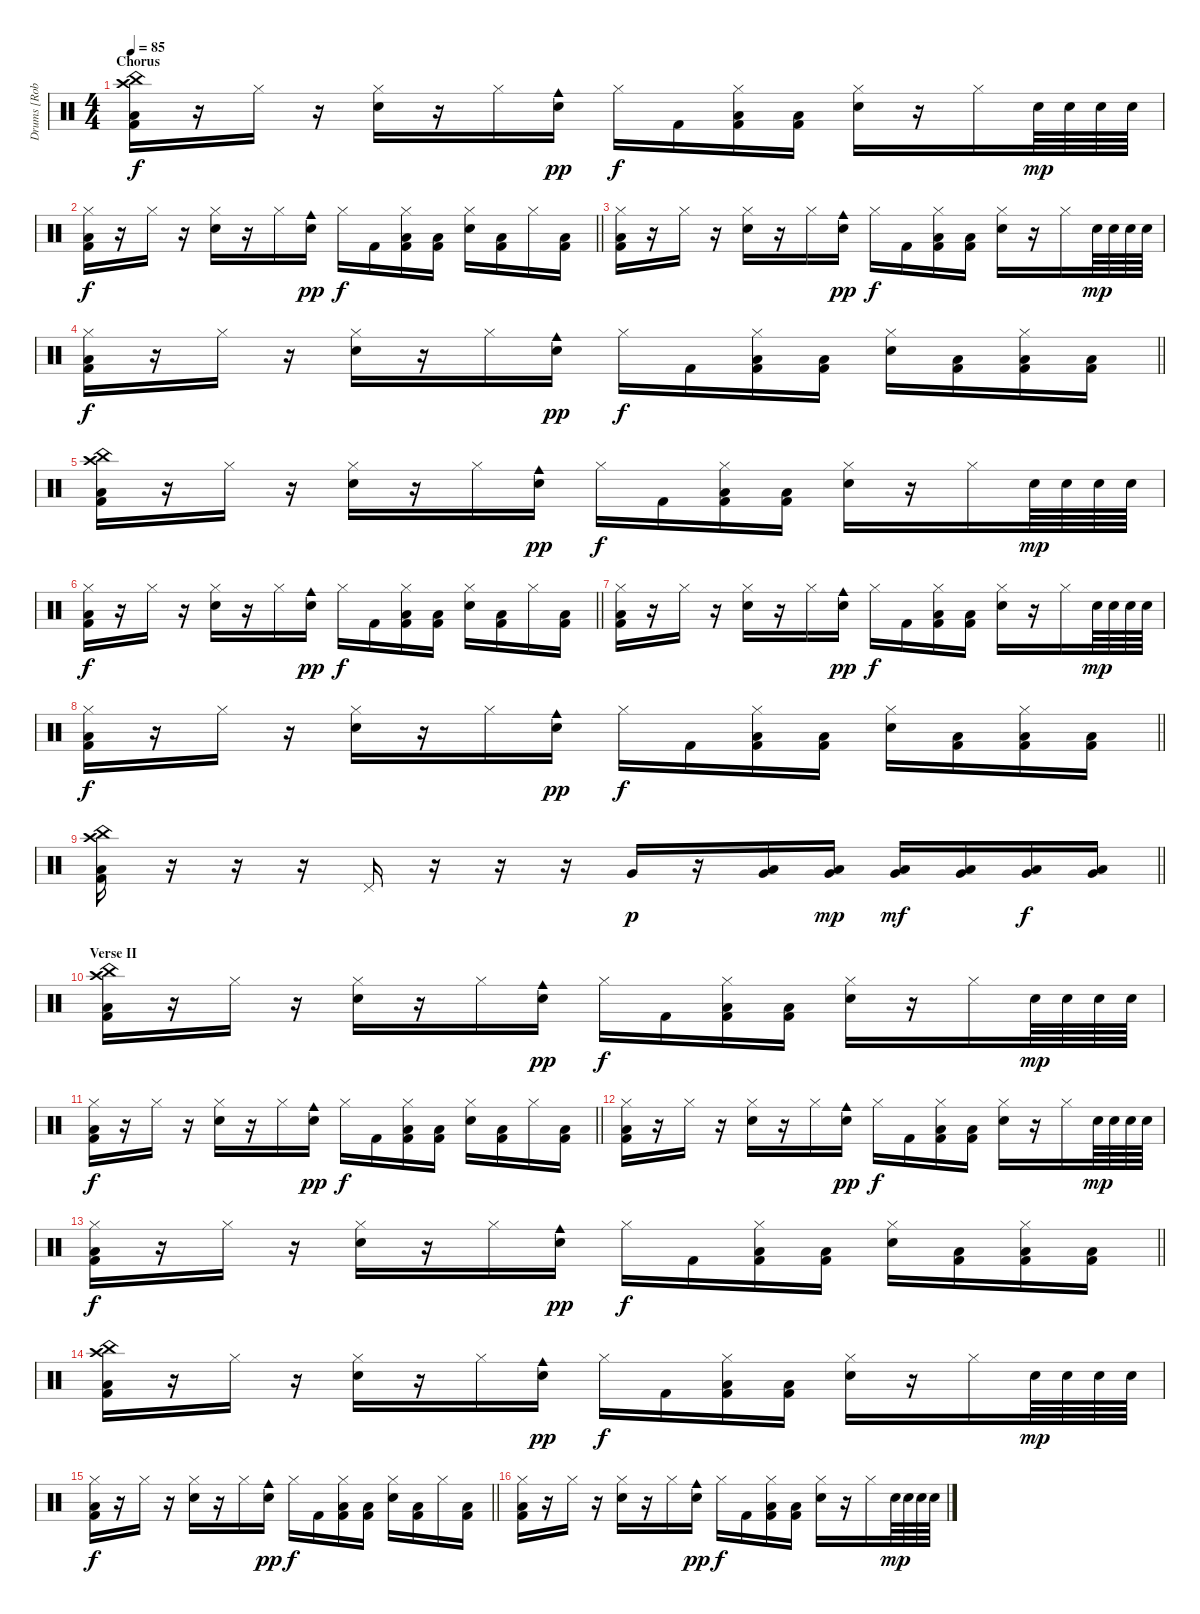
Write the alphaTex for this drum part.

\track ("Drums [Rob Bourdon]" "Drums [Rob") {instrument percussion}
\staff {score}
\articulation defaults
\ts (4 4)
\section ("" "Chorus")
\tempo 85
\clef neutral
\ks c
("China (hit)" "Crash high (hit)" "Low Floor Tom (hit)" "Kick (hit) 2").16{dy f} r.16 "Hi-Hat (closed)".16 r.16 ("Hi-Hat (closed)" "Snare (hit) 2").16 r.16 "Hi-Hat (closed)".16 ("Snare (hit) 2" "Cowbell medium (hit)").16{dy pp} "Hi-Hat (closed)".16{dy f} "Kick (hit) 2".16 ("Hi-Hat (closed)" "Low Floor Tom (hit)" "Kick (hit) 2").16 ("Low Floor Tom (hit)" "Kick (hit) 2").16 ("Hi-Hat (closed)" "Snare (hit) 2").16 r.16 "Hi-Hat (closed)".16 "Snare (hit) 2".64{dy mp} "Snare (hit) 2".64 "Snare (hit) 2".64 "Snare (hit) 2".64 |
\barLineRight lightlight
("Hi-Hat (closed)" "Low Floor Tom (hit)" "Kick (hit) 2").16{dy f} r.16 "Hi-Hat (closed)".16 r.16 ("Hi-Hat (closed)" "Snare (hit) 2").16 r.16 "Hi-Hat (closed)".16 ("Snare (hit) 2" "Cowbell medium (hit)").16{dy pp} "Hi-Hat (closed)".16{dy f} "Kick (hit) 2".16 ("Hi-Hat (closed)" "Low Floor Tom (hit)" "Kick (hit) 2").16 ("Low Floor Tom (hit)" "Kick (hit) 2").16 ("Hi-Hat (closed)" "Snare (hit) 2").16 ("Low Floor Tom (hit)" "Kick (hit) 2").16 "Hi-Hat (closed)".16 ("Low Floor Tom (hit)" "Kick (hit) 2").16 |
("Hi-Hat (closed)" "Low Floor Tom (hit)" "Kick (hit) 2").16 r.16 "Hi-Hat (closed)".16 r.16 ("Hi-Hat (closed)" "Snare (hit) 2").16 r.16 "Hi-Hat (closed)".16 ("Snare (hit) 2" "Cowbell medium (hit)").16{dy pp} "Hi-Hat (closed)".16{dy f} "Kick (hit) 2".16 ("Hi-Hat (closed)" "Low Floor Tom (hit)" "Kick (hit) 2").16 ("Low Floor Tom (hit)" "Kick (hit) 2").16 ("Hi-Hat (closed)" "Snare (hit) 2").16 r.16 "Hi-Hat (closed)".16 "Snare (hit) 2".64{dy mp} "Snare (hit) 2".64 "Snare (hit) 2".64 "Snare (hit) 2".64 |
\barLineRight lightlight
("Hi-Hat (closed)" "Low Floor Tom (hit)" "Kick (hit) 2").16{dy f} r.16 "Hi-Hat (closed)".16 r.16 ("Hi-Hat (closed)" "Snare (hit) 2").16 r.16 "Hi-Hat (closed)".16 ("Snare (hit) 2" "Cowbell medium (hit)").16{dy pp} "Hi-Hat (closed)".16{dy f} "Kick (hit) 2".16 ("Hi-Hat (closed)" "Low Floor Tom (hit)" "Kick (hit) 2").16 ("Low Floor Tom (hit)" "Kick (hit) 2").16 ("Hi-Hat (closed)" "Snare (hit) 2").16 ("Low Floor Tom (hit)" "Kick (hit) 2").16 ("Hi-Hat (closed)" "Low Floor Tom (hit)" "Kick (hit) 2").16 ("Low Floor Tom (hit)" "Kick (hit) 2").16 |
("China (hit)" "Crash high (hit)" "Low Floor Tom (hit)" "Kick (hit) 2").16 r.16 "Hi-Hat (closed)".16 r.16 ("Hi-Hat (closed)" "Snare (hit) 2").16 r.16 "Hi-Hat (closed)".16 ("Snare (hit) 2" "Cowbell medium (hit)").16{dy pp} "Hi-Hat (closed)".16{dy f} "Kick (hit) 2".16 ("Hi-Hat (closed)" "Low Floor Tom (hit)" "Kick (hit) 2").16 ("Low Floor Tom (hit)" "Kick (hit) 2").16 ("Hi-Hat (closed)" "Snare (hit) 2").16 r.16 "Hi-Hat (closed)".16 "Snare (hit) 2".64{dy mp} "Snare (hit) 2".64 "Snare (hit) 2".64 "Snare (hit) 2".64 |
\barLineRight lightlight
("Hi-Hat (closed)" "Low Floor Tom (hit)" "Kick (hit) 2").16{dy f} r.16 "Hi-Hat (closed)".16 r.16 ("Hi-Hat (closed)" "Snare (hit) 2").16 r.16 "Hi-Hat (closed)".16 ("Snare (hit) 2" "Cowbell medium (hit)").16{dy pp} "Hi-Hat (closed)".16{dy f} "Kick (hit) 2".16 ("Hi-Hat (closed)" "Low Floor Tom (hit)" "Kick (hit) 2").16 ("Low Floor Tom (hit)" "Kick (hit) 2").16 ("Hi-Hat (closed)" "Snare (hit) 2").16 ("Low Floor Tom (hit)" "Kick (hit) 2").16 "Hi-Hat (closed)".16 ("Low Floor Tom (hit)" "Kick (hit) 2").16 |
("Hi-Hat (closed)" "Low Floor Tom (hit)" "Kick (hit) 2").16 r.16 "Hi-Hat (closed)".16 r.16 ("Hi-Hat (closed)" "Snare (hit) 2").16 r.16 "Hi-Hat (closed)".16 ("Snare (hit) 2" "Cowbell medium (hit)").16{dy pp} "Hi-Hat (closed)".16{dy f} "Kick (hit) 2".16 ("Hi-Hat (closed)" "Low Floor Tom (hit)" "Kick (hit) 2").16 ("Low Floor Tom (hit)" "Kick (hit) 2").16 ("Hi-Hat (closed)" "Snare (hit) 2").16 r.16 "Hi-Hat (closed)".16 "Snare (hit) 2".64{dy mp} "Snare (hit) 2".64 "Snare (hit) 2".64 "Snare (hit) 2".64 |
\barLineRight lightlight
("Hi-Hat (closed)" "Low Floor Tom (hit)" "Kick (hit) 2").16{dy f} r.16 "Hi-Hat (closed)".16 r.16 ("Hi-Hat (closed)" "Snare (hit) 2").16 r.16 "Hi-Hat (closed)".16 ("Snare (hit) 2" "Cowbell medium (hit)").16{dy pp} "Hi-Hat (closed)".16{dy f} "Kick (hit) 2".16 ("Hi-Hat (closed)" "Low Floor Tom (hit)" "Kick (hit) 2").16 ("Low Floor Tom (hit)" "Kick (hit) 2").16 ("Hi-Hat (closed)" "Snare (hit) 2").16 ("Low Floor Tom (hit)" "Kick (hit) 2").16 ("Hi-Hat (closed)" "Low Floor Tom (hit)" "Kick (hit) 2").16 ("Low Floor Tom (hit)" "Kick (hit) 2").16 |
\barLineRight lightlight
("China (hit)" "Crash high (hit)" "Low Floor Tom (hit)" "Kick (hit) 2").16 r.16 r.16 r.16 "Pedal Hi-Hat (hit)".16 r.16 r.16 r.16 "Very Low Tom (hit)".16{dy p} r.16 ("Low Tom (hit)" "Very Low Tom (hit)").16 ("Low Tom (hit)" "Very Low Tom (hit)").16{dy mp} ("Low Tom (hit)" "Very Low Tom (hit)").16{dy mf} ("Low Tom (hit)" "Very Low Tom (hit)").16 ("Low Tom (hit)" "Very Low Tom (hit)").16{dy f} ("Low Tom (hit)" "Very Low Tom (hit)").16 |
\section ("" "Verse II")
("China (hit)" "Crash high (hit)" "Low Floor Tom (hit)" "Kick (hit) 2").16 r.16 "Hi-Hat (closed)".16 r.16 ("Hi-Hat (closed)" "Snare (hit) 2").16 r.16 "Hi-Hat (closed)".16 ("Snare (hit) 2" "Cowbell medium (hit)").16{dy pp} "Hi-Hat (closed)".16{dy f} "Kick (hit) 2".16 ("Hi-Hat (closed)" "Low Floor Tom (hit)" "Kick (hit) 2").16 ("Low Floor Tom (hit)" "Kick (hit) 2").16 ("Hi-Hat (closed)" "Snare (hit) 2").16 r.16 "Hi-Hat (closed)".16 "Snare (hit) 2".64{dy mp} "Snare (hit) 2".64 "Snare (hit) 2".64 "Snare (hit) 2".64 |
\barLineRight lightlight
("Hi-Hat (closed)" "Low Floor Tom (hit)" "Kick (hit) 2").16{dy f} r.16 "Hi-Hat (closed)".16 r.16 ("Hi-Hat (closed)" "Snare (hit) 2").16 r.16 "Hi-Hat (closed)".16 ("Snare (hit) 2" "Cowbell medium (hit)").16{dy pp} "Hi-Hat (closed)".16{dy f} "Kick (hit) 2".16 ("Hi-Hat (closed)" "Low Floor Tom (hit)" "Kick (hit) 2").16 ("Low Floor Tom (hit)" "Kick (hit) 2").16 ("Hi-Hat (closed)" "Snare (hit) 2").16 ("Low Floor Tom (hit)" "Kick (hit) 2").16 "Hi-Hat (closed)".16 ("Low Floor Tom (hit)" "Kick (hit) 2").16 |
("Hi-Hat (closed)" "Low Floor Tom (hit)" "Kick (hit) 2").16 r.16 "Hi-Hat (closed)".16 r.16 ("Hi-Hat (closed)" "Snare (hit) 2").16 r.16 "Hi-Hat (closed)".16 ("Snare (hit) 2" "Cowbell medium (hit)").16{dy pp} "Hi-Hat (closed)".16{dy f} "Kick (hit) 2".16 ("Hi-Hat (closed)" "Low Floor Tom (hit)" "Kick (hit) 2").16 ("Low Floor Tom (hit)" "Kick (hit) 2").16 ("Hi-Hat (closed)" "Snare (hit) 2").16 r.16 "Hi-Hat (closed)".16 "Snare (hit) 2".64{dy mp} "Snare (hit) 2".64 "Snare (hit) 2".64 "Snare (hit) 2".64 |
\barLineRight lightlight
("Hi-Hat (closed)" "Low Floor Tom (hit)" "Kick (hit) 2").16{dy f} r.16 "Hi-Hat (closed)".16 r.16 ("Hi-Hat (closed)" "Snare (hit) 2").16 r.16 "Hi-Hat (closed)".16 ("Snare (hit) 2" "Cowbell medium (hit)").16{dy pp} "Hi-Hat (closed)".16{dy f} "Kick (hit) 2".16 ("Hi-Hat (closed)" "Low Floor Tom (hit)" "Kick (hit) 2").16 ("Low Floor Tom (hit)" "Kick (hit) 2").16 ("Hi-Hat (closed)" "Snare (hit) 2").16 ("Low Floor Tom (hit)" "Kick (hit) 2").16 ("Hi-Hat (closed)" "Low Floor Tom (hit)" "Kick (hit) 2").16 ("Low Floor Tom (hit)" "Kick (hit) 2").16 |
("China (hit)" "Crash high (hit)" "Low Floor Tom (hit)" "Kick (hit) 2").16 r.16 "Hi-Hat (closed)".16 r.16 ("Hi-Hat (closed)" "Snare (hit) 2").16 r.16 "Hi-Hat (closed)".16 ("Snare (hit) 2" "Cowbell medium (hit)").16{dy pp} "Hi-Hat (closed)".16{dy f} "Kick (hit) 2".16 ("Hi-Hat (closed)" "Low Floor Tom (hit)" "Kick (hit) 2").16 ("Low Floor Tom (hit)" "Kick (hit) 2").16 ("Hi-Hat (closed)" "Snare (hit) 2").16 r.16 "Hi-Hat (closed)".16 "Snare (hit) 2".64{dy mp} "Snare (hit) 2".64 "Snare (hit) 2".64 "Snare (hit) 2".64 |
\barLineRight lightlight
("Hi-Hat (closed)" "Low Floor Tom (hit)" "Kick (hit) 2").16{dy f} r.16 "Hi-Hat (closed)".16 r.16 ("Hi-Hat (closed)" "Snare (hit) 2").16 r.16 "Hi-Hat (closed)".16 ("Snare (hit) 2" "Cowbell medium (hit)").16{dy pp} "Hi-Hat (closed)".16{dy f} "Kick (hit) 2".16 ("Hi-Hat (closed)" "Low Floor Tom (hit)" "Kick (hit) 2").16 ("Low Floor Tom (hit)" "Kick (hit) 2").16 ("Hi-Hat (closed)" "Snare (hit) 2").16 ("Low Floor Tom (hit)" "Kick (hit) 2").16 "Hi-Hat (closed)".16 ("Low Floor Tom (hit)" "Kick (hit) 2").16 |
("Hi-Hat (closed)" "Low Floor Tom (hit)" "Kick (hit) 2").16 r.16 "Hi-Hat (closed)".16 r.16 ("Hi-Hat (closed)" "Snare (hit) 2").16 r.16 "Hi-Hat (closed)".16 ("Snare (hit) 2" "Cowbell medium (hit)").16{dy pp} "Hi-Hat (closed)".16{dy f} "Kick (hit) 2".16 ("Hi-Hat (closed)" "Low Floor Tom (hit)" "Kick (hit) 2").16 ("Low Floor Tom (hit)" "Kick (hit) 2").16 ("Hi-Hat (closed)" "Snare (hit) 2").16 r.16 "Hi-Hat (closed)".16 "Snare (hit) 2".64{dy mp} "Snare (hit) 2".64 "Snare (hit) 2".64 "Snare (hit) 2".64
